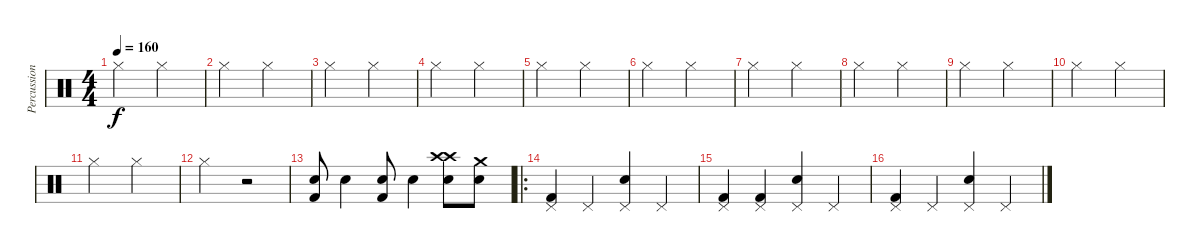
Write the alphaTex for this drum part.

\track ("Percussion" "Percussion") {instrument percussion}
\staff {score}
\articulation defaults
\ts (4 4)
\tempo 160
\clef neutral
\ks c "Hi-Hat (closed)".2{dy f} "Hi-Hat (closed)".2
|
"Hi-Hat (closed)".2 "Hi-Hat (closed)".2 |
"Hi-Hat (closed)".2 "Hi-Hat (closed)".2 |
"Hi-Hat (closed)".2 "Hi-Hat (closed)".2 |
"Hi-Hat (closed)".2 "Hi-Hat (closed)".2 |
"Hi-Hat (closed)".2 "Hi-Hat (closed)".2 |
"Hi-Hat (closed)".2 "Hi-Hat (closed)".2 |
"Hi-Hat (closed)".2 "Hi-Hat (closed)".2 |
"Hi-Hat (closed)".2 "Hi-Hat (closed)".2 |
"Hi-Hat (closed)".2 "Hi-Hat (closed)".2 |
"Hi-Hat (closed)".2 "Hi-Hat (closed)".2 |
"Hi-Hat (closed)".2 r.2 |
("Snare (hit) 2" "Kick (hit) 2").8 "Snare (hit) 2".4 ("Snare (hit) 2" "Kick (hit) 2").8 "Snare (hit) 2".4 ("Crash high (hit)" "Snare (hit) 2" "Crash high (hit)").8 ("Snare (hit) 2" "Crash medium (hit)").8 |
\ro
("Kick (hit) 2" "Pedal Hi-Hat (hit)").4 "Pedal Hi-Hat (hit)".4 ("Snare (hit) 2" "Pedal Hi-Hat (hit)").4 "Pedal Hi-Hat (hit)".4 |
("Kick (hit) 2" "Pedal Hi-Hat (hit)").4 ("Kick (hit) 2" "Pedal Hi-Hat (hit)").4 ("Snare (hit) 2" "Pedal Hi-Hat (hit)").4 "Pedal Hi-Hat (hit)".4 |
("Kick (hit) 2" "Pedal Hi-Hat (hit)").4 "Pedal Hi-Hat (hit)".4 ("Snare (hit) 2" "Pedal Hi-Hat (hit)").4 "Pedal Hi-Hat (hit)".4
